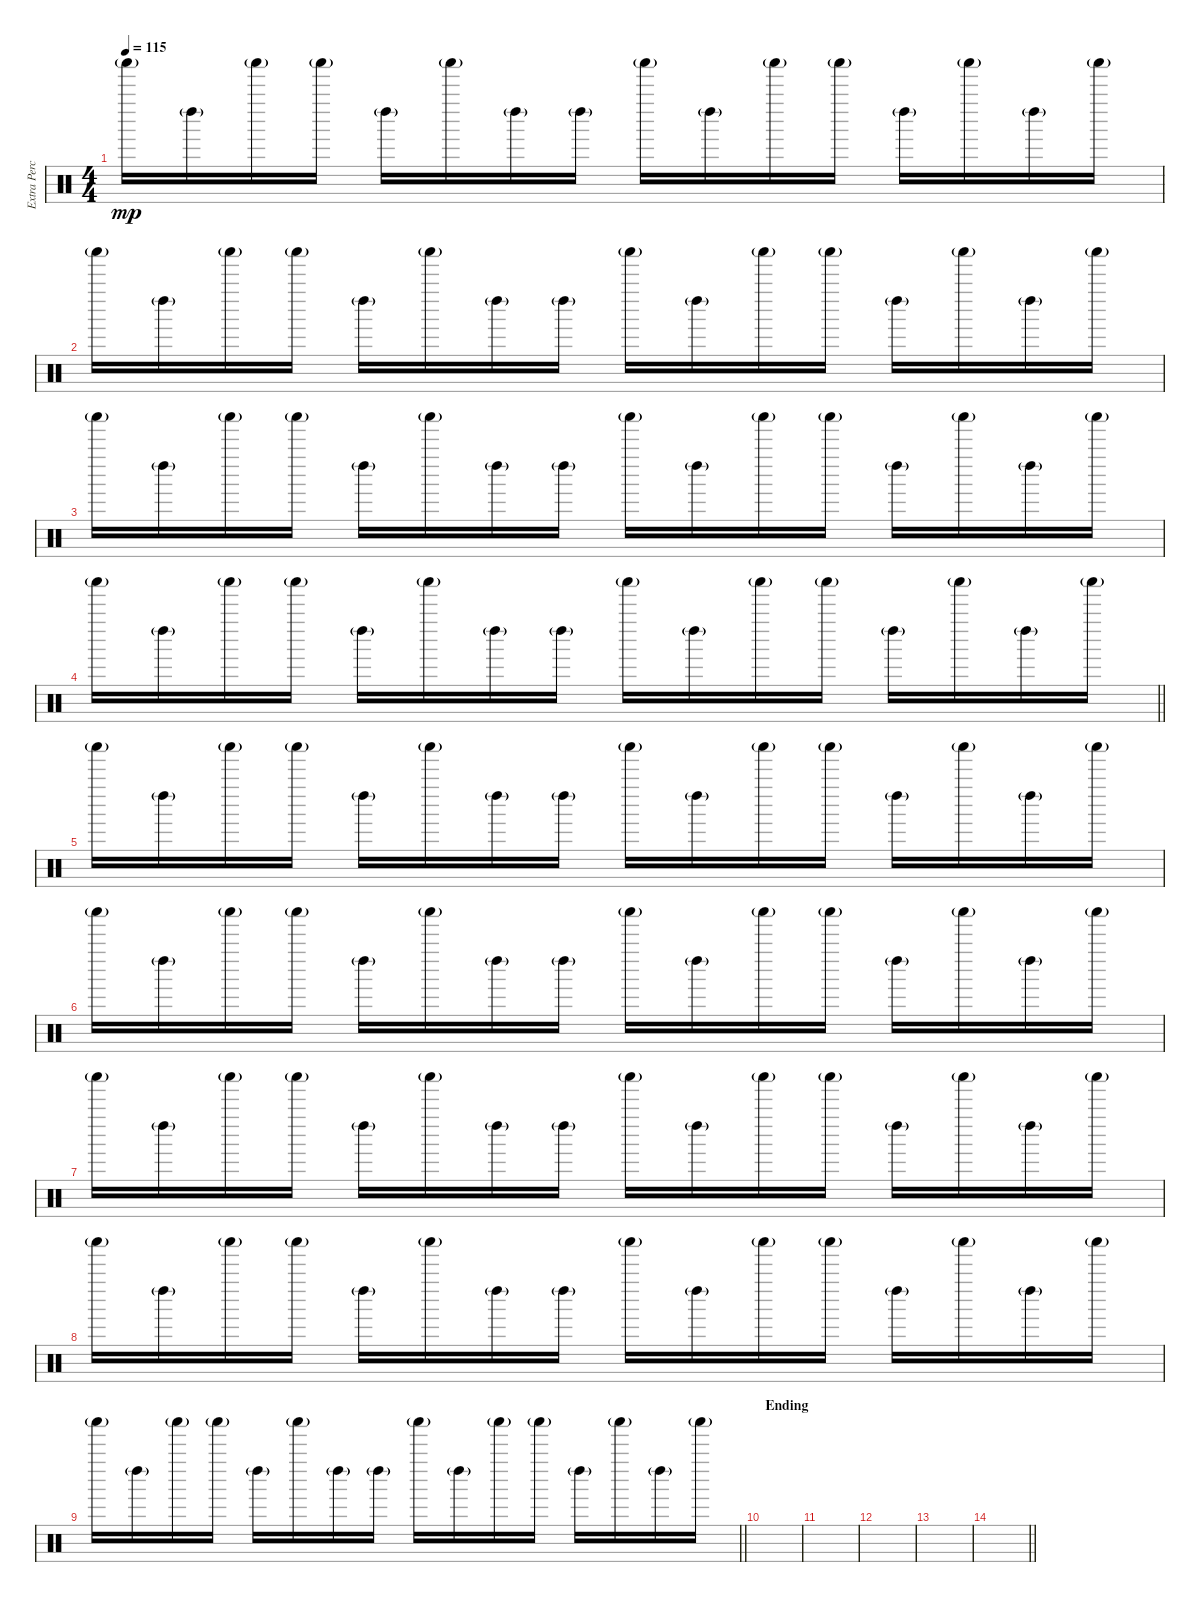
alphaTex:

\track ("Extra Percussion" "Extra Perc") {instrument percussion}
\staff {score}
\articulation defaults
\ts (4 4)
\tempo 115
\clef neutral
\ks c "Shaker (hit)"{g}.16{dy mp volume 2} "Left Maraca (hit)"{g}.16 "Shaker (hit)"{g}.16 "Shaker (hit)"{g}.16 "Left Maraca (hit)"{g}.16 "Shaker (hit)"{g}.16 "Left Maraca (hit)"{g}.16 "Left Maraca (hit)"{g}.16 "Shaker (hit)"{g}.16 "Left Maraca (hit)"{g}.16 "Shaker (hit)"{g}.16 "Shaker (hit)"{g}.16 "Left Maraca (hit)"{g}.16 "Shaker (hit)"{g}.16 "Left Maraca (hit)"{g}.16 "Shaker (hit)"{g}.16
|
"Shaker (hit)"{g}.16 "Left Maraca (hit)"{g}.16 "Shaker (hit)"{g}.16 "Shaker (hit)"{g}.16 "Left Maraca (hit)"{g}.16 "Shaker (hit)"{g}.16 "Left Maraca (hit)"{g}.16 "Left Maraca (hit)"{g}.16 "Shaker (hit)"{g}.16 "Left Maraca (hit)"{g}.16 "Shaker (hit)"{g}.16 "Shaker (hit)"{g}.16 "Left Maraca (hit)"{g}.16 "Shaker (hit)"{g}.16 "Left Maraca (hit)"{g}.16 "Shaker (hit)"{g}.16 |
"Shaker (hit)"{g}.16 "Left Maraca (hit)"{g}.16 "Shaker (hit)"{g}.16 "Shaker (hit)"{g}.16 "Left Maraca (hit)"{g}.16 "Shaker (hit)"{g}.16 "Left Maraca (hit)"{g}.16 "Left Maraca (hit)"{g}.16 "Shaker (hit)"{g}.16 "Left Maraca (hit)"{g}.16 "Shaker (hit)"{g}.16 "Shaker (hit)"{g}.16 "Left Maraca (hit)"{g}.16 "Shaker (hit)"{g}.16 "Left Maraca (hit)"{g}.16 "Shaker (hit)"{g}.16 |
\barLineRight lightlight "Shaker (hit)"{g}.16 "Left Maraca (hit)"{g}.16 "Shaker (hit)"{g}.16 "Shaker (hit)"{g}.16 "Left Maraca (hit)"{g}.16 "Shaker (hit)"{g}.16 "Left Maraca (hit)"{g}.16 "Left Maraca (hit)"{g}.16 "Shaker (hit)"{g}.16 "Left Maraca (hit)"{g}.16 "Shaker (hit)"{g}.16 "Shaker (hit)"{g}.16 "Left Maraca (hit)"{g}.16 "Shaker (hit)"{g}.16 "Left Maraca (hit)"{g}.16 "Shaker (hit)"{g}.16
|
"Shaker (hit)"{g}.16 "Left Maraca (hit)"{g}.16 "Shaker (hit)"{g}.16 "Shaker (hit)"{g}.16 "Left Maraca (hit)"{g}.16 "Shaker (hit)"{g}.16 "Left Maraca (hit)"{g}.16 "Left Maraca (hit)"{g}.16 "Shaker (hit)"{g}.16 "Left Maraca (hit)"{g}.16 "Shaker (hit)"{g}.16 "Shaker (hit)"{g}.16 "Left Maraca (hit)"{g}.16 "Shaker (hit)"{g}.16 "Left Maraca (hit)"{g}.16 "Shaker (hit)"{g}.16 |
"Shaker (hit)"{g}.16 "Left Maraca (hit)"{g}.16 "Shaker (hit)"{g}.16 "Shaker (hit)"{g}.16 "Left Maraca (hit)"{g}.16 "Shaker (hit)"{g}.16 "Left Maraca (hit)"{g}.16 "Left Maraca (hit)"{g}.16 "Shaker (hit)"{g}.16 "Left Maraca (hit)"{g}.16 "Shaker (hit)"{g}.16 "Shaker (hit)"{g}.16 "Left Maraca (hit)"{g}.16 "Shaker (hit)"{g}.16 "Left Maraca (hit)"{g}.16 "Shaker (hit)"{g}.16 |
"Shaker (hit)"{g}.16 "Left Maraca (hit)"{g}.16 "Shaker (hit)"{g}.16 "Shaker (hit)"{g}.16 "Left Maraca (hit)"{g}.16 "Shaker (hit)"{g}.16 "Left Maraca (hit)"{g}.16 "Left Maraca (hit)"{g}.16 "Shaker (hit)"{g}.16 "Left Maraca (hit)"{g}.16 "Shaker (hit)"{g}.16 "Shaker (hit)"{g}.16 "Left Maraca (hit)"{g}.16 "Shaker (hit)"{g}.16 "Left Maraca (hit)"{g}.16 "Shaker (hit)"{g}.16 |
"Shaker (hit)"{g}.16 "Left Maraca (hit)"{g}.16 "Shaker (hit)"{g}.16 "Shaker (hit)"{g}.16 "Left Maraca (hit)"{g}.16 "Shaker (hit)"{g}.16 "Left Maraca (hit)"{g}.16 "Left Maraca (hit)"{g}.16 "Shaker (hit)"{g}.16 "Left Maraca (hit)"{g}.16 "Shaker (hit)"{g}.16 "Shaker (hit)"{g}.16 "Left Maraca (hit)"{g}.16 "Shaker (hit)"{g}.16 "Left Maraca (hit)"{g}.16 "Shaker (hit)"{g}.16 |
\barLineRight lightlight "Shaker (hit)"{g}.16 "Left Maraca (hit)"{g}.16 "Shaker (hit)"{g}.16 "Shaker (hit)"{g}.16 "Left Maraca (hit)"{g}.16 "Shaker (hit)"{g}.16 "Left Maraca (hit)"{g}.16 "Left Maraca (hit)"{g}.16 "Shaker (hit)"{g}.16 "Left Maraca (hit)"{g}.16 "Shaker (hit)"{g}.16 "Shaker (hit)"{g}.16 "Left Maraca (hit)"{g}.16 "Shaker (hit)"{g}.16 "Left Maraca (hit)"{g}.16 "Shaker (hit)"{g}.16
|
\section ("" "Ending")
|
|
|
|
\barLineRight lightlight
